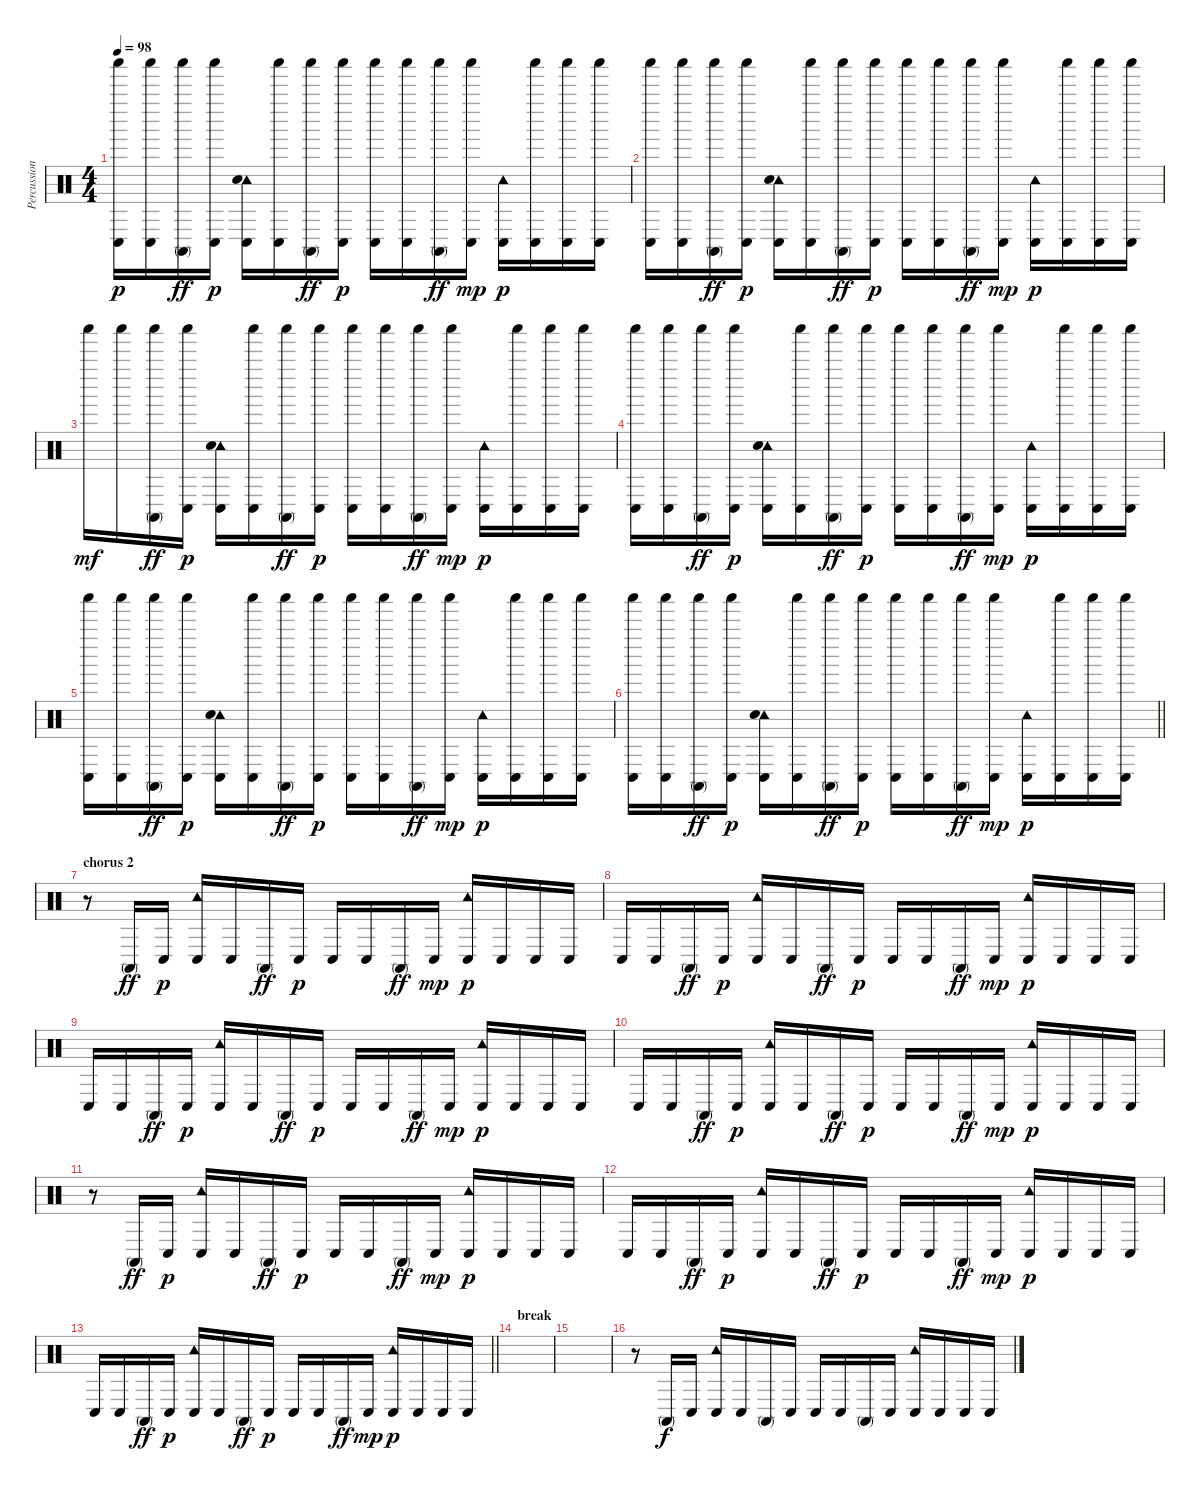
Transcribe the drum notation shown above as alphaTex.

\track ("Percussions" "Percussion") {instrument percussion}
\staff {score}
\articulation defaults
\ts (4 4)
\tempo 98
\clef neutral
\ks c
("Shaker (hit)" "Conga low (hit)").16{dy p} ("Shaker (hit)" "Conga low (hit)").16 ("Shaker (hit)" "Conga high (mute)").16{dy ff} ("Shaker (hit)" "Conga low (hit)").16{dy p} ("Tambourine (hit)" "Hand Clap (hit)" "Conga low (hit)").16 ("Shaker (hit)" "Conga low (hit)").16 ("Shaker (hit)" "Conga high (mute)").16{dy ff} ("Shaker (hit)" "Conga low (hit)").16{dy p} ("Shaker (hit)" "Conga low (hit)").16 ("Shaker (hit)" "Conga low (hit)").16 ("Shaker (hit)" "Conga high (mute)").16{dy ff} ("Shaker (hit)" "Conga low (hit)").16{dy mp} ("Tambourine (hit)" "Conga low (hit)").16{dy p} ("Shaker (hit)" "Conga low (hit)").16 ("Shaker (hit)" "Conga low (hit)").16 ("Shaker (hit)" "Conga low (hit)").16 |
("Shaker (hit)" "Conga low (hit)").16 ("Shaker (hit)" "Conga low (hit)").16 ("Shaker (hit)" "Conga high (mute)").16{dy ff} ("Shaker (hit)" "Conga low (hit)").16{dy p} ("Tambourine (hit)" "Hand Clap (hit)" "Conga low (hit)").16 ("Shaker (hit)" "Conga low (hit)").16 ("Shaker (hit)" "Conga high (mute)").16{dy ff} ("Shaker (hit)" "Conga low (hit)").16{dy p} ("Shaker (hit)" "Conga low (hit)").16 ("Shaker (hit)" "Conga low (hit)").16 ("Shaker (hit)" "Conga high (mute)").16{dy ff} ("Shaker (hit)" "Conga low (hit)").16{dy mp} ("Tambourine (hit)" "Conga low (hit)").16{dy p} ("Shaker (hit)" "Conga low (hit)").16 ("Shaker (hit)" "Conga low (hit)").16 ("Shaker (hit)" "Conga low (hit)").16 |
"Shaker (hit)".16{dy mf} "Shaker (hit)".16 ("Shaker (hit)" "Conga high (mute)").16{dy ff} ("Shaker (hit)" "Conga low (hit)").16{dy p} ("Tambourine (hit)" "Hand Clap (hit)" "Conga low (hit)").16 ("Shaker (hit)" "Conga low (hit)").16 ("Shaker (hit)" "Conga high (mute)").16{dy ff} ("Shaker (hit)" "Conga low (hit)").16{dy p} ("Shaker (hit)" "Conga low (hit)").16 ("Shaker (hit)" "Conga low (hit)").16 ("Shaker (hit)" "Conga high (mute)").16{dy ff} ("Shaker (hit)" "Conga low (hit)").16{dy mp} ("Tambourine (hit)" "Conga low (hit)").16{dy p} ("Shaker (hit)" "Conga low (hit)").16 ("Shaker (hit)" "Conga low (hit)").16 ("Shaker (hit)" "Conga low (hit)").16 |
("Shaker (hit)" "Conga low (hit)").16 ("Shaker (hit)" "Conga low (hit)").16 ("Shaker (hit)" "Conga high (mute)").16{dy ff} ("Shaker (hit)" "Conga low (hit)").16{dy p} ("Tambourine (hit)" "Hand Clap (hit)" "Conga low (hit)").16 ("Shaker (hit)" "Conga low (hit)").16 ("Shaker (hit)" "Conga high (mute)").16{dy ff} ("Shaker (hit)" "Conga low (hit)").16{dy p} ("Shaker (hit)" "Conga low (hit)").16 ("Shaker (hit)" "Conga low (hit)").16 ("Shaker (hit)" "Conga high (mute)").16{dy ff} ("Shaker (hit)" "Conga low (hit)").16{dy mp} ("Tambourine (hit)" "Conga low (hit)").16{dy p} ("Shaker (hit)" "Conga low (hit)").16 ("Shaker (hit)" "Conga low (hit)").16 ("Shaker (hit)" "Conga low (hit)").16 |
("Shaker (hit)" "Conga low (hit)").16 ("Shaker (hit)" "Conga low (hit)").16 ("Shaker (hit)" "Conga high (mute)").16{dy ff} ("Shaker (hit)" "Conga low (hit)").16{dy p} ("Tambourine (hit)" "Hand Clap (hit)" "Conga low (hit)").16 ("Shaker (hit)" "Conga low (hit)").16 ("Shaker (hit)" "Conga high (mute)").16{dy ff} ("Shaker (hit)" "Conga low (hit)").16{dy p} ("Shaker (hit)" "Conga low (hit)").16 ("Shaker (hit)" "Conga low (hit)").16 ("Shaker (hit)" "Conga high (mute)").16{dy ff} ("Shaker (hit)" "Conga low (hit)").16{dy mp} ("Tambourine (hit)" "Conga low (hit)").16{dy p} ("Shaker (hit)" "Conga low (hit)").16 ("Shaker (hit)" "Conga low (hit)").16 ("Shaker (hit)" "Conga low (hit)").16 |
\barLineRight lightlight
("Shaker (hit)" "Conga low (hit)").16 ("Shaker (hit)" "Conga low (hit)").16 ("Shaker (hit)" "Conga high (mute)").16{dy ff} ("Shaker (hit)" "Conga low (hit)").16{dy p} ("Tambourine (hit)" "Hand Clap (hit)" "Conga low (hit)").16 ("Shaker (hit)" "Conga low (hit)").16 ("Shaker (hit)" "Conga high (mute)").16{dy ff} ("Shaker (hit)" "Conga low (hit)").16{dy p} ("Shaker (hit)" "Conga low (hit)").16 ("Shaker (hit)" "Conga low (hit)").16 ("Shaker (hit)" "Conga high (mute)").16{dy ff} ("Shaker (hit)" "Conga low (hit)").16{dy mp} ("Tambourine (hit)" "Conga low (hit)").16{dy p} ("Shaker (hit)" "Conga low (hit)").16 ("Shaker (hit)" "Conga low (hit)").16 ("Shaker (hit)" "Conga low (hit)").16 |
\section ("" "chorus 2")
r.8 "Conga high (mute)".16{dy ff} "Conga low (hit)".16{dy p} ("Tambourine (hit)" "Conga low (hit)").16 "Conga low (hit)".16 "Conga high (mute)".16{dy ff} "Conga low (hit)".16{dy p} "Conga low (hit)".16 "Conga low (hit)".16 "Conga high (mute)".16{dy ff} "Conga low (hit)".16{dy mp} ("Tambourine (hit)" "Conga low (hit)").16{dy p} "Conga low (hit)".16 "Conga low (hit)".16 "Conga low (hit)".16 |
"Conga low (hit)".16 "Conga low (hit)".16 "Conga high (mute)".16{dy ff} "Conga low (hit)".16{dy p} ("Tambourine (hit)" "Conga low (hit)").16 "Conga low (hit)".16 "Conga high (mute)".16{dy ff} "Conga low (hit)".16{dy p} "Conga low (hit)".16 "Conga low (hit)".16 "Conga high (mute)".16{dy ff} "Conga low (hit)".16{dy mp} ("Tambourine (hit)" "Conga low (hit)").16{dy p} "Conga low (hit)".16 "Conga low (hit)".16 "Conga low (hit)".16 |
"Conga low (hit)".16 "Conga low (hit)".16 "Conga high (mute)".16{dy ff} "Conga low (hit)".16{dy p} ("Tambourine (hit)" "Conga low (hit)").16 "Conga low (hit)".16 "Conga high (mute)".16{dy ff} "Conga low (hit)".16{dy p} "Conga low (hit)".16 "Conga low (hit)".16 "Conga high (mute)".16{dy ff} "Conga low (hit)".16{dy mp} ("Tambourine (hit)" "Conga low (hit)").16{dy p} "Conga low (hit)".16 "Conga low (hit)".16 "Conga low (hit)".16 |
"Conga low (hit)".16 "Conga low (hit)".16 "Conga high (mute)".16{dy ff} "Conga low (hit)".16{dy p} ("Tambourine (hit)" "Conga low (hit)").16 "Conga low (hit)".16 "Conga high (mute)".16{dy ff} "Conga low (hit)".16{dy p} "Conga low (hit)".16 "Conga low (hit)".16 "Conga high (mute)".16{dy ff} "Conga low (hit)".16{dy mp} ("Tambourine (hit)" "Conga low (hit)").16{dy p} "Conga low (hit)".16 "Conga low (hit)".16 "Conga low (hit)".16 |
r.8 "Conga high (mute)".16{dy ff} "Conga low (hit)".16{dy p} ("Tambourine (hit)" "Conga low (hit)").16 "Conga low (hit)".16 "Conga high (mute)".16{dy ff} "Conga low (hit)".16{dy p} "Conga low (hit)".16 "Conga low (hit)".16 "Conga high (mute)".16{dy ff} "Conga low (hit)".16{dy mp} ("Tambourine (hit)" "Conga low (hit)").16{dy p} "Conga low (hit)".16 "Conga low (hit)".16 "Conga low (hit)".16 |
"Conga low (hit)".16 "Conga low (hit)".16 "Conga high (mute)".16{dy ff} "Conga low (hit)".16{dy p} ("Tambourine (hit)" "Conga low (hit)").16 "Conga low (hit)".16 "Conga high (mute)".16{dy ff} "Conga low (hit)".16{dy p} "Conga low (hit)".16 "Conga low (hit)".16 "Conga high (mute)".16{dy ff} "Conga low (hit)".16{dy mp} ("Tambourine (hit)" "Conga low (hit)").16{dy p} "Conga low (hit)".16 "Conga low (hit)".16 "Conga low (hit)".16 |
\barLineRight lightlight "Conga low (hit)".16 "Conga low (hit)".16 "Conga high (mute)".16{dy ff} "Conga low (hit)".16{dy p}
("Tambourine (hit)" "Conga low (hit)").16 "Conga low (hit)".16 "Conga high (mute)".16{dy ff} "Conga low (hit)".16{dy p} "Conga low (hit)".16 "Conga low (hit)".16 "Conga high (mute)".16{dy ff} "Conga low (hit)".16{dy mp} ("Tambourine (hit)" "Conga low (hit)").16{dy p} "Conga low (hit)".16 "Conga low (hit)".16 "Conga low (hit)".16 |
\section ("" "break")
|
|
r.8 "Conga high (mute)".16{dy f} "Conga low (hit)".16 ("Tambourine (hit)" "Conga low (hit)").16 "Conga low (hit)".16 "Conga high (mute)".16 "Conga low (hit)".16 "Conga low (hit)".16 "Conga low (hit)".16 "Conga high (mute)".16 "Conga low (hit)".16 ("Tambourine (hit)" "Conga low (hit)").16 "Conga low (hit)".16 "Conga low (hit)".16 "Conga low (hit)".16
